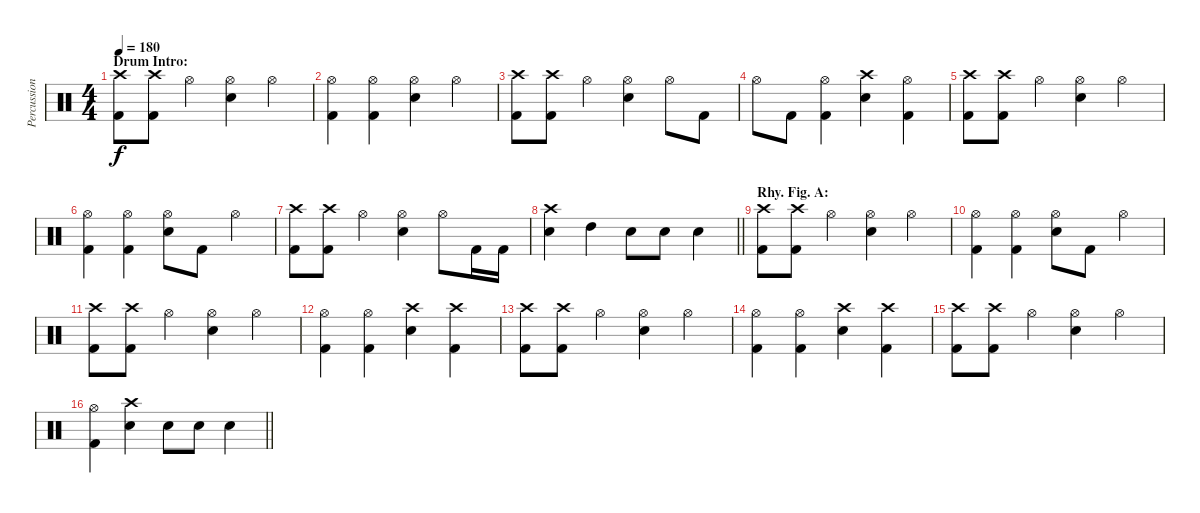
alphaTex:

\track ("Percussion" "Percussion") {instrument percussion}
\staff {score}
\articulation defaults
\ts (4 4)
\section ("" "Drum Intro:")
\tempo 180
\clef neutral
\ks c
("Crash high (hit)" "Kick (hit) 2").8{dy f} ("Crash high (hit)" "Kick (hit) 2").8 "Hi-Hat (open)".4 ("Hi-Hat (open)" "Snare (hit) 2").4 "Hi-Hat (open)".4 |
("Hi-Hat (open)" "Kick (hit) 2").4 ("Hi-Hat (open)" "Kick (hit) 2").4 ("Hi-Hat (open)" "Snare (hit) 2").4 "Hi-Hat (open)".4 |
("Crash high (hit)" "Kick (hit) 2").8 ("Crash high (hit)" "Kick (hit) 2").8 "Hi-Hat (open)".4 ("Hi-Hat (open)" "Snare (hit) 2").4 "Hi-Hat (open)".8 "Kick (hit) 2".8 |
"Hi-Hat (open)".8 "Kick (hit) 2".8 ("Hi-Hat (open)" "Kick (hit) 2").4 ("Crash high (hit)" "Snare (hit) 2").4 ("Hi-Hat (open)" "Kick (hit) 2").4 |
("Crash high (hit)" "Kick (hit) 2").8 ("Crash high (hit)" "Kick (hit) 2").8 "Hi-Hat (open)".4 ("Hi-Hat (open)" "Snare (hit) 2").4 "Hi-Hat (open)".4 |
("Hi-Hat (open)" "Kick (hit) 2").4 ("Hi-Hat (open)" "Kick (hit) 2").4 ("Hi-Hat (open)" "Snare (hit) 2").8 "Kick (hit) 2".8 "Hi-Hat (open)".4 |
("Crash high (hit)" "Kick (hit) 2").8 ("Crash high (hit)" "Kick (hit) 2").8 "Hi-Hat (open)".4 ("Hi-Hat (open)" "Snare (hit) 2").4 "Hi-Hat (open)".8 "Kick (hit) 2".16 "Kick (hit) 2".16 |
\barLineRight lightlight
("Crash high (hit)" "Snare (hit) 2").4 "High Tom (hit)".4 "Snare (hit) 2".8 "Snare (hit) 2".8 "Snare (hit) 2".4 |
\section ("" "Rhy. Fig. A:")
("Crash high (hit)" "Kick (hit) 2").8 ("Crash high (hit)" "Kick (hit) 2").8 "Hi-Hat (open)".4 ("Hi-Hat (open)" "Snare (hit) 2").4 "Hi-Hat (open)".4 |
("Hi-Hat (open)" "Kick (hit) 2").4 ("Hi-Hat (open)" "Kick (hit) 2").4 ("Hi-Hat (open)" "Snare (hit) 2").8 "Kick (hit) 2".8 "Hi-Hat (open)".4 |
("Crash high (hit)" "Kick (hit) 2").8 ("Crash high (hit)" "Kick (hit) 2").8 "Hi-Hat (open)".4 ("Hi-Hat (open)" "Snare (hit) 2").4 "Hi-Hat (open)".4 |
("Hi-Hat (open)" "Kick (hit) 2").4 ("Hi-Hat (open)" "Kick (hit) 2").4 ("Crash high (hit)" "Snare (hit) 2").4 ("Crash high (hit)" "Kick (hit) 2").4 |
("Crash high (hit)" "Kick (hit) 2").8 ("Crash high (hit)" "Kick (hit) 2").8 "Hi-Hat (open)".4 ("Hi-Hat (open)" "Snare (hit) 2").4 "Hi-Hat (open)".4 |
("Hi-Hat (open)" "Kick (hit) 2").4 ("Hi-Hat (open)" "Kick (hit) 2").4 ("Crash high (hit)" "Snare (hit) 2").4 ("Crash high (hit)" "Kick (hit) 2").4 |
("Crash high (hit)" "Kick (hit) 2").8 ("Crash high (hit)" "Kick (hit) 2").8 "Hi-Hat (open)".4 ("Hi-Hat (open)" "Snare (hit) 2").4 "Hi-Hat (open)".4 |
\barLineRight lightlight
("Hi-Hat (open)" "Kick (hit) 2").4 ("Crash high (hit)" "Snare (hit) 2").4 "Snare (hit) 2".8 "Snare (hit) 2".8 "Snare (hit) 2".4
